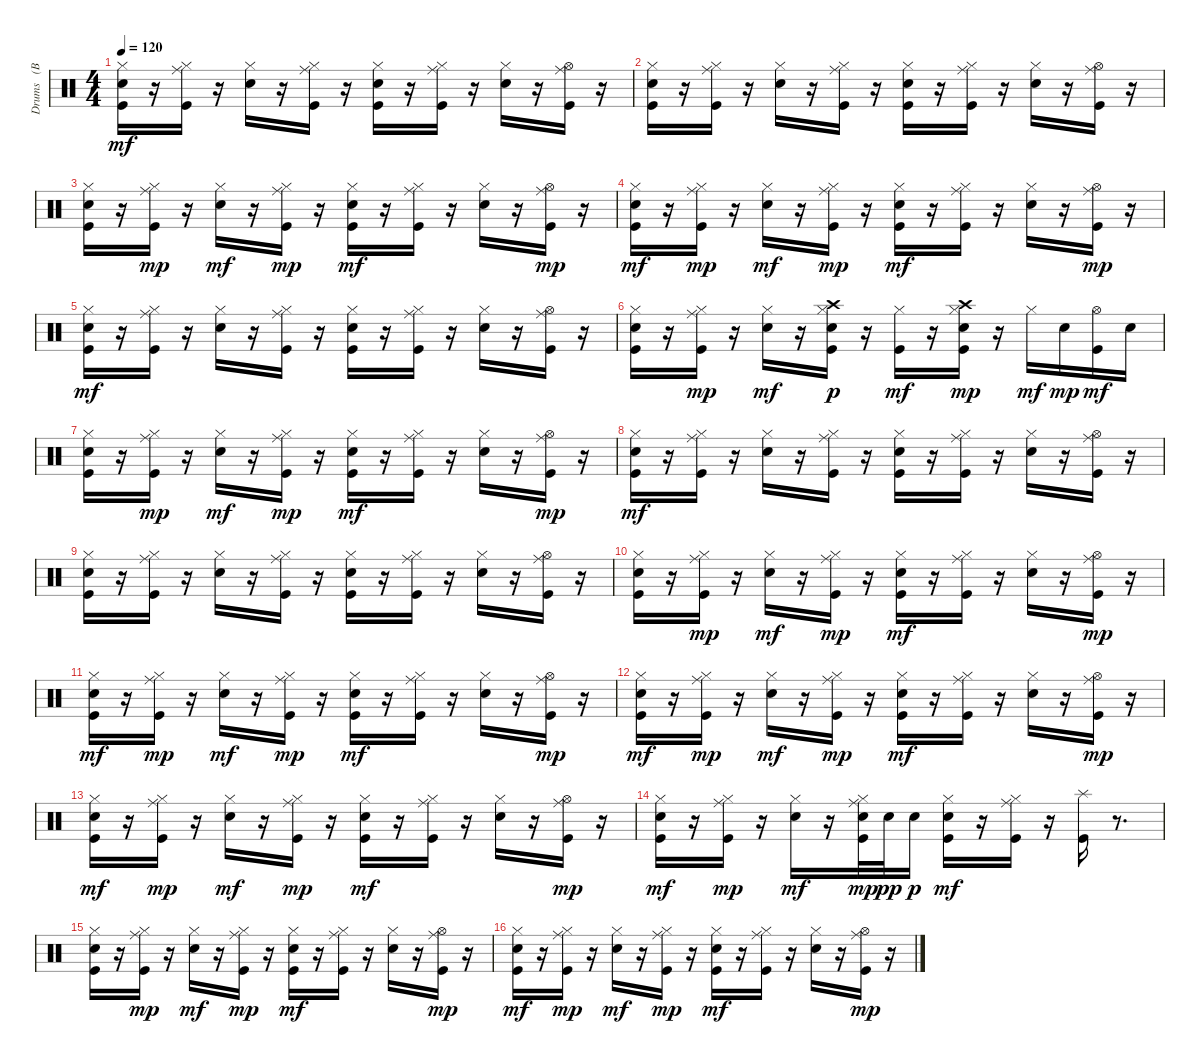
\track ("Drums   (BB)" "Drums   (B") {instrument percussion}
\staff {score}
\articulation defaults
\ts (4 4)
\tempo 120
\clef neutral
\ks c
("Kick (hit)" "Electric Snare (hit)" "Hi-Hat (closed)").16{dy mf} r.16 ("Kick (hit)" "Hi-Hat (closed)" "Ride (middle)").16 r.16 ("Electric Snare (hit)" "Hi-Hat (closed)").16 r.16 ("Kick (hit)" "Hi-Hat (closed)" "Ride (middle)").16 r.16 ("Kick (hit)" "Electric Snare (hit)" "Hi-Hat (closed)").16 r.16 ("Kick (hit)" "Hi-Hat (closed)" "Ride (middle)").16 r.16 ("Electric Snare (hit)" "Hi-Hat (closed)").16 r.16 ("Kick (hit)" "Hi-Hat (open)" "Ride (middle)").16 r.16 |
("Kick (hit)" "Electric Snare (hit)" "Hi-Hat (closed)").16 r.16 ("Kick (hit)" "Hi-Hat (closed)" "Ride (middle)").16 r.16 ("Electric Snare (hit)" "Hi-Hat (closed)").16 r.16 ("Kick (hit)" "Hi-Hat (closed)" "Ride (middle)").16 r.16 ("Kick (hit)" "Electric Snare (hit)" "Hi-Hat (closed)").16 r.16 ("Kick (hit)" "Hi-Hat (closed)" "Ride (middle)").16 r.16 ("Electric Snare (hit)" "Hi-Hat (closed)").16 r.16 ("Kick (hit)" "Hi-Hat (open)" "Ride (middle)").16 r.16 |
("Kick (hit)" "Electric Snare (hit)" "Hi-Hat (closed)").16 r.16 ("Kick (hit)" "Hi-Hat (closed)" "Ride (middle)").16{dy mp} r.16 ("Electric Snare (hit)" "Hi-Hat (closed)").16{dy mf} r.16 ("Kick (hit)" "Hi-Hat (closed)" "Ride (middle)").16{dy mp} r.16 ("Kick (hit)" "Electric Snare (hit)" "Hi-Hat (closed)").16{dy mf} r.16 ("Kick (hit)" "Hi-Hat (closed)" "Ride (middle)").16 r.16 ("Electric Snare (hit)" "Hi-Hat (closed)").16 r.16 ("Kick (hit)" "Hi-Hat (open)" "Ride (middle)").16{dy mp} r.16 |
("Kick (hit)" "Electric Snare (hit)" "Hi-Hat (closed)").16{dy mf} r.16 ("Kick (hit)" "Hi-Hat (closed)" "Ride (middle)").16{dy mp} r.16 ("Electric Snare (hit)" "Hi-Hat (closed)").16{dy mf} r.16 ("Kick (hit)" "Hi-Hat (closed)" "Ride (middle)").16{dy mp} r.16 ("Kick (hit)" "Electric Snare (hit)" "Hi-Hat (closed)").16{dy mf} r.16 ("Kick (hit)" "Hi-Hat (closed)" "Ride (middle)").16 r.16 ("Electric Snare (hit)" "Hi-Hat (closed)").16 r.16 ("Kick (hit)" "Hi-Hat (open)" "Ride (middle)").16{dy mp} r.16 |
("Kick (hit)" "Electric Snare (hit)" "Hi-Hat (closed)").16{dy mf} r.16 ("Kick (hit)" "Hi-Hat (closed)" "Ride (middle)").16 r.16 ("Electric Snare (hit)" "Hi-Hat (closed)").16 r.16 ("Kick (hit)" "Hi-Hat (closed)" "Ride (middle)").16 r.16 ("Kick (hit)" "Electric Snare (hit)" "Hi-Hat (closed)").16 r.16 ("Kick (hit)" "Hi-Hat (closed)" "Ride (middle)").16 r.16 ("Electric Snare (hit)" "Hi-Hat (closed)").16 r.16 ("Kick (hit)" "Hi-Hat (open)" "Ride (middle)").16 r.16 |
("Kick (hit)" "Electric Snare (hit)" "Hi-Hat (closed)").16 r.16 ("Kick (hit)" "Hi-Hat (closed)" "Ride (middle)").16{dy mp} r.16 ("Electric Snare (hit)" "Hi-Hat (closed)").16{dy mf} r.16 ("Kick (hit)" "Electric Snare (hit)" "Hi-Hat (closed)" "Crash high (hit)").16{dy p} r.16 ("Kick (hit)" "Hi-Hat (closed)").16{dy mf} r.16 ("Kick (hit)" "Electric Snare (hit)" "Hi-Hat (closed)" "Crash high (hit)").16{dy mp} r.16 "Hi-Hat (closed)".16{dy mf} "Electric Snare (hit)".16{dy mp} ("Kick (hit)" "Hi-Hat (open)").16{dy mf} "Electric Snare (hit)".16 |
("Kick (hit)" "Electric Snare (hit)" "Hi-Hat (closed)").16 r.16 ("Kick (hit)" "Hi-Hat (closed)" "Ride (middle)").16{dy mp} r.16 ("Electric Snare (hit)" "Hi-Hat (closed)").16{dy mf} r.16 ("Kick (hit)" "Hi-Hat (closed)" "Ride (middle)").16{dy mp} r.16 ("Kick (hit)" "Electric Snare (hit)" "Hi-Hat (closed)").16{dy mf} r.16 ("Kick (hit)" "Hi-Hat (closed)" "Ride (middle)").16 r.16 ("Electric Snare (hit)" "Hi-Hat (closed)").16 r.16 ("Kick (hit)" "Hi-Hat (open)" "Ride (middle)").16{dy mp} r.16 |
("Kick (hit)" "Electric Snare (hit)" "Hi-Hat (closed)").16{dy mf} r.16 ("Kick (hit)" "Hi-Hat (closed)" "Ride (middle)").16 r.16 ("Electric Snare (hit)" "Hi-Hat (closed)").16 r.16 ("Kick (hit)" "Hi-Hat (closed)" "Ride (middle)").16 r.16 ("Kick (hit)" "Electric Snare (hit)" "Hi-Hat (closed)").16 r.16 ("Kick (hit)" "Hi-Hat (closed)" "Ride (middle)").16 r.16 ("Electric Snare (hit)" "Hi-Hat (closed)").16 r.16 ("Kick (hit)" "Hi-Hat (open)" "Ride (middle)").16 r.16 |
("Kick (hit)" "Electric Snare (hit)" "Hi-Hat (closed)").16 r.16 ("Kick (hit)" "Hi-Hat (closed)" "Ride (middle)").16 r.16 ("Electric Snare (hit)" "Hi-Hat (closed)").16 r.16 ("Kick (hit)" "Hi-Hat (closed)" "Ride (middle)").16 r.16 ("Kick (hit)" "Electric Snare (hit)" "Hi-Hat (closed)").16 r.16 ("Kick (hit)" "Hi-Hat (closed)" "Ride (middle)").16 r.16 ("Electric Snare (hit)" "Hi-Hat (closed)").16 r.16 ("Kick (hit)" "Hi-Hat (open)" "Ride (middle)").16 r.16 |
("Kick (hit)" "Electric Snare (hit)" "Hi-Hat (closed)").16 r.16 ("Kick (hit)" "Hi-Hat (closed)" "Ride (middle)").16{dy mp} r.16 ("Electric Snare (hit)" "Hi-Hat (closed)").16{dy mf} r.16 ("Kick (hit)" "Hi-Hat (closed)" "Ride (middle)").16{dy mp} r.16 ("Kick (hit)" "Electric Snare (hit)" "Hi-Hat (closed)").16{dy mf} r.16 ("Kick (hit)" "Hi-Hat (closed)" "Ride (middle)").16 r.16 ("Electric Snare (hit)" "Hi-Hat (closed)").16 r.16 ("Kick (hit)" "Hi-Hat (open)" "Ride (middle)").16{dy mp} r.16 |
("Kick (hit)" "Electric Snare (hit)" "Hi-Hat (closed)").16{dy mf} r.16 ("Kick (hit)" "Hi-Hat (closed)" "Ride (middle)").16{dy mp} r.16 ("Electric Snare (hit)" "Hi-Hat (closed)").16{dy mf} r.16 ("Kick (hit)" "Hi-Hat (closed)" "Ride (middle)").16{dy mp} r.16 ("Kick (hit)" "Electric Snare (hit)" "Hi-Hat (closed)").16{dy mf} r.16 ("Kick (hit)" "Hi-Hat (closed)" "Ride (middle)").16 r.16 ("Electric Snare (hit)" "Hi-Hat (closed)").16 r.16 ("Kick (hit)" "Hi-Hat (open)" "Ride (middle)").16{dy mp} r.16 |
("Kick (hit)" "Electric Snare (hit)" "Hi-Hat (closed)").16{dy mf} r.16 ("Kick (hit)" "Hi-Hat (closed)" "Ride (middle)").16{dy mp} r.16 ("Electric Snare (hit)" "Hi-Hat (closed)").16{dy mf} r.16 ("Kick (hit)" "Hi-Hat (closed)" "Ride (middle)").16{dy mp} r.16 ("Kick (hit)" "Electric Snare (hit)" "Hi-Hat (closed)").16{dy mf} r.16 ("Kick (hit)" "Hi-Hat (closed)" "Ride (middle)").16 r.16 ("Electric Snare (hit)" "Hi-Hat (closed)").16 r.16 ("Kick (hit)" "Hi-Hat (open)" "Ride (middle)").16{dy mp} r.16 |
("Kick (hit)" "Electric Snare (hit)" "Hi-Hat (closed)").16{dy mf} r.16 ("Kick (hit)" "Hi-Hat (closed)" "Ride (middle)").16{dy mp} r.16 ("Electric Snare (hit)" "Hi-Hat (closed)").16{dy mf} r.16 ("Kick (hit)" "Hi-Hat (closed)" "Ride (middle)").16{dy mp} r.16 ("Kick (hit)" "Electric Snare (hit)" "Hi-Hat (closed)").16{dy mf} r.16 ("Kick (hit)" "Hi-Hat (closed)" "Ride (middle)").16 r.16 ("Electric Snare (hit)" "Hi-Hat (closed)").16 r.16 ("Kick (hit)" "Hi-Hat (open)" "Ride (middle)").16{dy mp} r.16 |
("Kick (hit)" "Electric Snare (hit)" "Hi-Hat (closed)").16{dy mf} r.16 ("Kick (hit)" "Hi-Hat (closed)" "Ride (middle)").16{dy mp} r.16 ("Electric Snare (hit)" "Hi-Hat (closed)").16{dy mf} r.16 ("Kick (hit)" "Electric Snare (hit)" "Hi-Hat (closed)" "Ride (middle)").32{dy mp} "Electric Snare (hit)".32{dy pp} "Electric Snare (hit)".16{dy p} ("Kick (hit)" "Electric Snare (hit)" "Hi-Hat (closed)").16{dy mf} r.16 ("Kick (hit)" "Hi-Hat (closed)" "Ride (middle)").16 r.16 ("Kick (hit)" "Splash (hit)").16 r.8{d} |
("Kick (hit)" "Electric Snare (hit)" "Hi-Hat (closed)").16 r.16 ("Kick (hit)" "Hi-Hat (closed)" "Ride (middle)").16{dy mp} r.16 ("Electric Snare (hit)" "Hi-Hat (closed)").16{dy mf} r.16 ("Kick (hit)" "Hi-Hat (closed)" "Ride (middle)").16{dy mp} r.16 ("Kick (hit)" "Electric Snare (hit)" "Hi-Hat (closed)").16{dy mf} r.16 ("Kick (hit)" "Hi-Hat (closed)" "Ride (middle)").16 r.16 ("Electric Snare (hit)" "Hi-Hat (closed)").16 r.16 ("Kick (hit)" "Hi-Hat (open)" "Ride (middle)").16{dy mp} r.16 |
("Kick (hit)" "Electric Snare (hit)" "Hi-Hat (closed)").16{dy mf} r.16 ("Kick (hit)" "Hi-Hat (closed)" "Ride (middle)").16{dy mp} r.16 ("Electric Snare (hit)" "Hi-Hat (closed)").16{dy mf} r.16 ("Kick (hit)" "Hi-Hat (closed)" "Ride (middle)").16{dy mp} r.16 ("Kick (hit)" "Electric Snare (hit)" "Hi-Hat (closed)").16{dy mf} r.16 ("Kick (hit)" "Hi-Hat (closed)" "Ride (middle)").16 r.16 ("Electric Snare (hit)" "Hi-Hat (closed)").16 r.16 ("Kick (hit)" "Hi-Hat (open)" "Ride (middle)").16{dy mp} r.16
